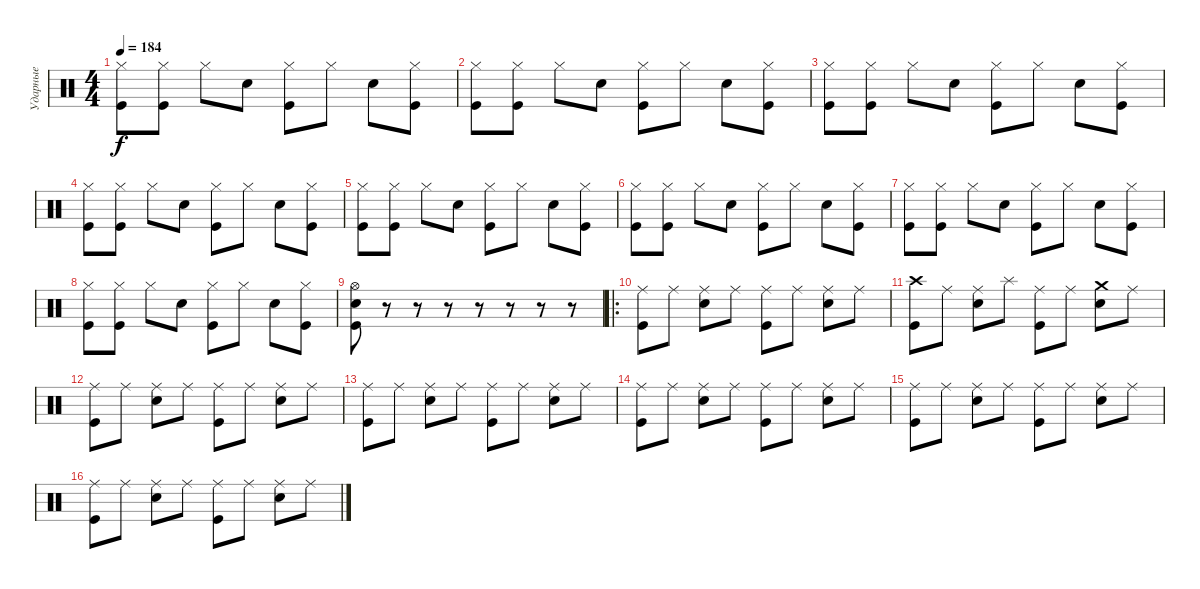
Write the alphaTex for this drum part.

\track ("Ударные" "Ударные") {instrument percussion}
\staff {score}
\articulation defaults
\ts (4 4)
\tempo 184
\clef neutral
\ks c
("Hi-Hat (closed)" "Kick (hit)").8{dy f} ("Hi-Hat (closed)" "Kick (hit)").8 "Hi-Hat (closed)".8 "Electric Snare (hit)".8 ("Hi-Hat (closed)" "Kick (hit)").8 "Hi-Hat (closed)".8 "Electric Snare (hit)".8 ("Hi-Hat (closed)" "Kick (hit)").8 |
("Hi-Hat (closed)" "Kick (hit)").8 ("Hi-Hat (closed)" "Kick (hit)").8 "Hi-Hat (closed)".8 "Electric Snare (hit)".8 ("Hi-Hat (closed)" "Kick (hit)").8 "Hi-Hat (closed)".8 "Electric Snare (hit)".8 ("Hi-Hat (closed)" "Kick (hit)").8 |
("Hi-Hat (closed)" "Kick (hit)").8 ("Hi-Hat (closed)" "Kick (hit)").8 "Hi-Hat (closed)".8 "Electric Snare (hit)".8 ("Hi-Hat (closed)" "Kick (hit)").8 "Hi-Hat (closed)".8 "Electric Snare (hit)".8 ("Hi-Hat (closed)" "Kick (hit)").8 |
("Hi-Hat (closed)" "Kick (hit)").8 ("Hi-Hat (closed)" "Kick (hit)").8 "Hi-Hat (closed)".8 "Electric Snare (hit)".8 ("Hi-Hat (closed)" "Kick (hit)").8 "Hi-Hat (closed)".8 "Electric Snare (hit)".8 ("Hi-Hat (closed)" "Kick (hit)").8 |
("Hi-Hat (closed)" "Kick (hit)").8 ("Hi-Hat (closed)" "Kick (hit)").8 "Hi-Hat (closed)".8 "Electric Snare (hit)".8 ("Hi-Hat (closed)" "Kick (hit)").8 "Hi-Hat (closed)".8 "Electric Snare (hit)".8 ("Hi-Hat (closed)" "Kick (hit)").8 |
("Hi-Hat (closed)" "Kick (hit)").8 ("Hi-Hat (closed)" "Kick (hit)").8 "Hi-Hat (closed)".8 "Electric Snare (hit)".8 ("Hi-Hat (closed)" "Kick (hit)").8 "Hi-Hat (closed)".8 "Electric Snare (hit)".8 ("Hi-Hat (closed)" "Kick (hit)").8 |
("Hi-Hat (closed)" "Kick (hit)").8 ("Hi-Hat (closed)" "Kick (hit)").8 "Hi-Hat (closed)".8 "Electric Snare (hit)".8 ("Hi-Hat (closed)" "Kick (hit)").8 "Hi-Hat (closed)".8 "Electric Snare (hit)".8 ("Hi-Hat (closed)" "Kick (hit)").8 |
("Hi-Hat (closed)" "Kick (hit)").8 ("Hi-Hat (closed)" "Kick (hit)").8 "Hi-Hat (closed)".8 "Electric Snare (hit)".8 ("Hi-Hat (closed)" "Kick (hit)").8 "Hi-Hat (closed)".8 "Electric Snare (hit)".8 ("Hi-Hat (closed)" "Kick (hit)").8 |
("Hi-Hat (open)" "Electric Snare (hit)" "Kick (hit)").8 r.8 r.8 r.8 r.8 r.8 r.8 r.8 |
\ro
("Ride (middle)" "Kick (hit)").8 "Ride (middle)".8 ("Ride (middle)" "Electric Snare (hit)").8 "Ride (middle)".8 ("Ride (middle)" "Kick (hit)").8 "Ride (middle)".8 ("Ride (middle)" "Electric Snare (hit)").8 "Ride (middle)".8 |
("Crash high (hit)" "Kick (hit)").8 "Ride (middle)".8 ("Ride (middle)" "Electric Snare (hit)").8 "Splash (hit)".8 ("Ride (middle)" "Kick (hit)").8 "Ride (middle)".8 ("Crash medium (hit)" "Electric Snare (hit)").8 "Ride (middle)".8 |
("Ride (middle)" "Kick (hit)").8 "Ride (middle)".8 ("Ride (middle)" "Electric Snare (hit)").8 "Ride (middle)".8 ("Ride (middle)" "Kick (hit)").8 "Ride (middle)".8 ("Ride (middle)" "Electric Snare (hit)").8 "Ride (middle)".8 |
("Ride (middle)" "Kick (hit)").8 "Ride (middle)".8 ("Ride (middle)" "Electric Snare (hit)").8 "Ride (middle)".8 ("Ride (middle)" "Kick (hit)").8 "Ride (middle)".8 ("Ride (middle)" "Electric Snare (hit)").8 "Ride (middle)".8 |
("Ride (middle)" "Kick (hit)").8 "Ride (middle)".8 ("Ride (middle)" "Electric Snare (hit)").8 "Ride (middle)".8 ("Ride (middle)" "Kick (hit)").8 "Ride (middle)".8 ("Ride (middle)" "Electric Snare (hit)").8 "Ride (middle)".8 |
("Ride (middle)" "Kick (hit)").8 "Ride (middle)".8 ("Ride (middle)" "Electric Snare (hit)").8 "Ride (middle)".8 ("Ride (middle)" "Kick (hit)").8 "Ride (middle)".8 ("Ride (middle)" "Electric Snare (hit)").8 "Ride (middle)".8 |
("Ride (middle)" "Kick (hit)").8 "Ride (middle)".8 ("Ride (middle)" "Electric Snare (hit)").8 "Ride (middle)".8 ("Ride (middle)" "Kick (hit)").8 "Ride (middle)".8 ("Ride (middle)" "Electric Snare (hit)").8 "Ride (middle)".8
